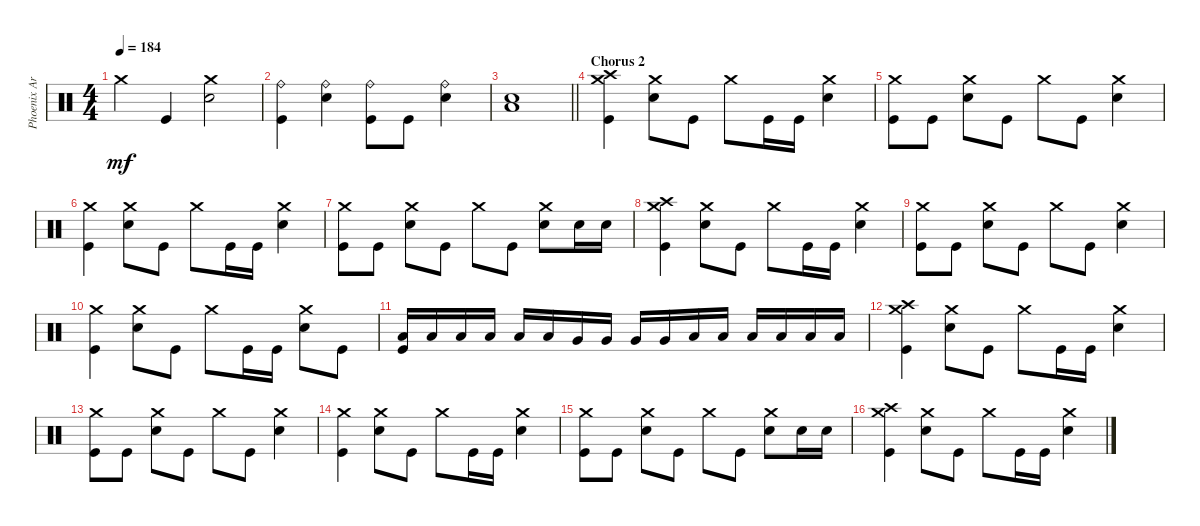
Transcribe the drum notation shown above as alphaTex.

\track ("Phoenix Arn-Horn (Drums)" "Phoenix Ar") {instrument percussion}
\staff {score}
\articulation defaults
\ts (4 4)
\tempo 184
\clef neutral
\ks c "Crash medium (hit)".4{dy mf} "Kick (hit)".4
("Snare (hit) 2" "Crash medium (hit)").2 |
("Kick (hit)" "Ride (bell)").4 ("Snare (hit) 2" "Ride (bell)").4 ("Kick (hit)" "Ride (bell)").8 "Kick (hit)".8 ("Snare (hit) 2" "Ride (bell)").4 |
\barLineRight lightlight
("Snare (hit) 2" "Low Floor Tom (hit)").1 |
\section ("" "Chorus 2")
("Kick (hit)" "Crash medium (hit)" "Crash high (hit)").4 ("Snare (hit) 2" "Crash medium (hit)").8 "Kick (hit)".8 "Crash medium (hit)".8 "Kick (hit)".16 "Kick (hit)".16 ("Snare (hit) 2" "Crash medium (hit)").4 |
("Kick (hit)" "Crash medium (hit)").8 "Kick (hit)".8 ("Snare (hit) 2" "Crash medium (hit)").8 "Kick (hit)".8 "Crash medium (hit)".8 "Kick (hit)".8 ("Snare (hit) 2" "Crash medium (hit)").4 |
("Kick (hit)" "Crash medium (hit)").4 ("Snare (hit) 2" "Crash medium (hit)").8 "Kick (hit)".8 "Crash medium (hit)".8 "Kick (hit)".16 "Kick (hit)".16 ("Snare (hit) 2" "Crash medium (hit)").4 |
("Kick (hit)" "Crash medium (hit)").8 "Kick (hit)".8 ("Snare (hit) 2" "Crash medium (hit)").8 "Kick (hit)".8 "Crash medium (hit)".8 "Kick (hit)".8 ("Snare (hit) 2" "Crash medium (hit)").8 "Snare (hit) 2".16 "Snare (hit) 2".16 |
("Kick (hit)" "Crash medium (hit)" "Crash high (hit)").4 ("Snare (hit) 2" "Crash medium (hit)").8 "Kick (hit)".8 "Crash medium (hit)".8 "Kick (hit)".16 "Kick (hit)".16 ("Snare (hit) 2" "Crash medium (hit)").4 |
("Kick (hit)" "Crash medium (hit)").8 "Kick (hit)".8 ("Snare (hit) 2" "Crash medium (hit)").8 "Kick (hit)".8 "Crash medium (hit)".8 "Kick (hit)".8 ("Snare (hit) 2" "Crash medium (hit)").4 |
("Kick (hit)" "Crash medium (hit)").4 ("Snare (hit) 2" "Crash medium (hit)").8 "Kick (hit)".8 "Crash medium (hit)".8 "Kick (hit)".16 "Kick (hit)".16 ("Snare (hit) 2" "Crash medium (hit)").8 "Kick (hit)".8 |
("Low Tom (hit)" "Kick (hit)").16 "Low Tom (hit)".16 "Low Tom (hit)".16 "Low Tom (hit)".16 "Low Tom (hit)".16 "Low Tom (hit)".16 "Very Low Tom (hit)".16 "Very Low Tom (hit)".16 "Very Low Tom (hit)".16 "Very Low Tom (hit)".16 "Low Floor Tom (hit)".16 "Low Floor Tom (hit)".16 "Low Floor Tom (hit)".16 "Low Floor Tom (hit)".16 "Low Floor Tom (hit)".16 "Low Floor Tom (hit)".16 |
("Kick (hit)" "Crash medium (hit)" "Crash high (hit)").4 ("Snare (hit) 2" "Crash medium (hit)").8 "Kick (hit)".8 "Crash medium (hit)".8 "Kick (hit)".16 "Kick (hit)".16 ("Snare (hit) 2" "Crash medium (hit)").4 |
("Kick (hit)" "Crash medium (hit)").8 "Kick (hit)".8 ("Snare (hit) 2" "Crash medium (hit)").8 "Kick (hit)".8 "Crash medium (hit)".8 "Kick (hit)".8 ("Snare (hit) 2" "Crash medium (hit)").4 |
("Kick (hit)" "Crash medium (hit)").4 ("Snare (hit) 2" "Crash medium (hit)").8 "Kick (hit)".8 "Crash medium (hit)".8 "Kick (hit)".16 "Kick (hit)".16 ("Snare (hit) 2" "Crash medium (hit)").4 |
("Kick (hit)" "Crash medium (hit)").8 "Kick (hit)".8 ("Snare (hit) 2" "Crash medium (hit)").8 "Kick (hit)".8 "Crash medium (hit)".8 "Kick (hit)".8 ("Snare (hit) 2" "Crash medium (hit)").8 "Snare (hit) 2".16 "Snare (hit) 2".16 |
("Kick (hit)" "Crash medium (hit)" "Crash high (hit)").4 ("Snare (hit) 2" "Crash medium (hit)").8 "Kick (hit)".8 "Crash medium (hit)".8 "Kick (hit)".16 "Kick (hit)".16 ("Snare (hit) 2" "Crash medium (hit)").4
